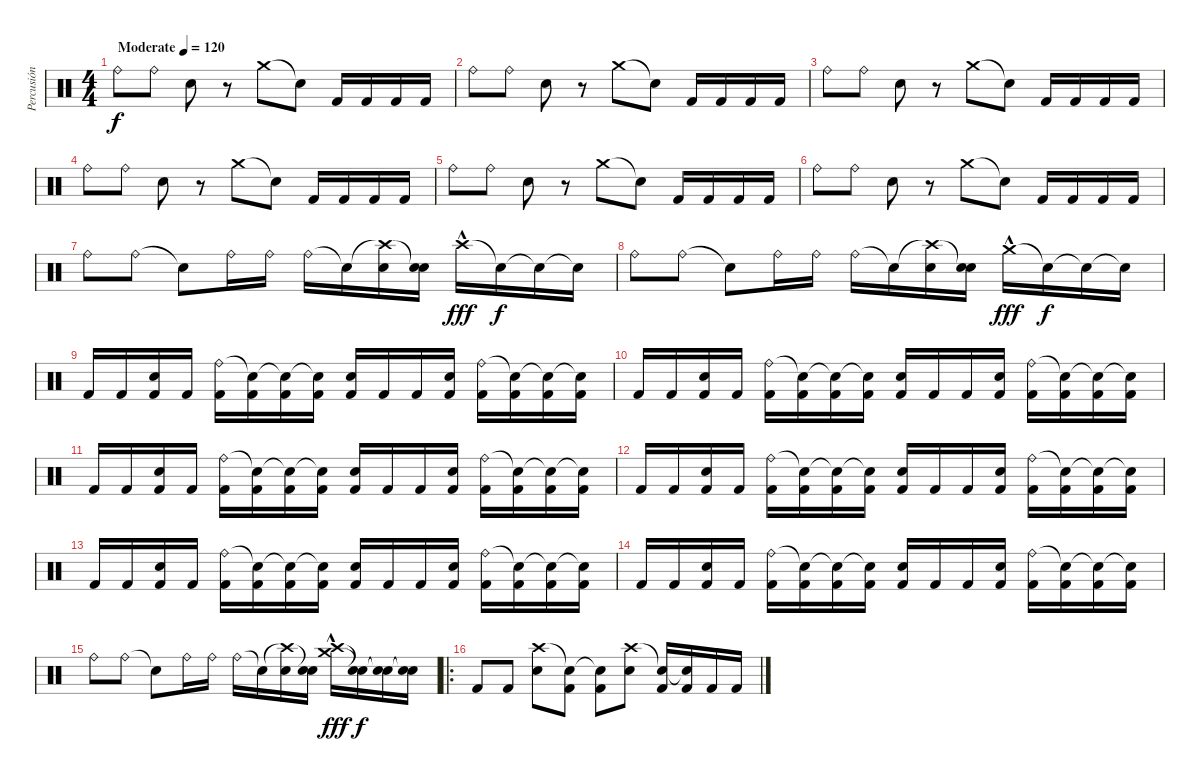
\track ("Percusión" "Percusión") {instrument percussion}
\staff {score}
\articulation defaults
\ts (4 4)
\tempo (120 "Moderate")
\clef neutral
\ks c "Ride (bell)".8{dy f} "Ride (bell)".8 "Electric Snare (hit)".8
r.8 "Crash medium (hit)".8 "Snare (hit)"{t}.8 "Kick (hit) 2".16 "Kick (hit) 2".16 "Kick (hit) 2".16 "Kick (hit) 2".16 |
"Ride (bell)".8 "Ride (bell)".8 "Electric Snare (hit)".8 r.8 "Crash medium (hit)".8 "Snare (hit)"{t}.8 "Kick (hit) 2".16 "Kick (hit) 2".16 "Kick (hit) 2".16 "Kick (hit) 2".16 |
"Ride (bell)".8 "Ride (bell)".8 "Electric Snare (hit)".8 r.8 "Crash medium (hit)".8 "Snare (hit)"{t}.8 "Kick (hit) 2".16 "Kick (hit) 2".16 "Kick (hit) 2".16 "Kick (hit) 2".16 |
"Ride (bell)".8 "Ride (bell)".8 "Electric Snare (hit)".8 r.8 "Crash medium (hit)".8 "Snare (hit)"{t}.8 "Kick (hit) 2".16 "Kick (hit) 2".16 "Kick (hit) 2".16 "Kick (hit) 2".16 |
"Ride (bell)".8 "Ride (bell)".8 "Electric Snare (hit)".8 r.8 "Crash medium (hit)".8 "Snare (hit)"{t}.8 "Kick (hit) 2".16 "Kick (hit) 2".16 "Kick (hit) 2".16 "Kick (hit) 2".16 |
"Ride (bell)".8 "Ride (bell)".8 "Electric Snare (hit)".8 r.8 "Crash medium (hit)".8 "Snare (hit)"{t}.8 "Kick (hit) 2".16 "Kick (hit) 2".16 "Kick (hit) 2".16 "Kick (hit) 2".16 |
"Ride (bell)".8 "Ride (bell)".8 "Snare (hit)"{t}.8 "Ride (bell)".16 "Ride (bell)".16 "Ride (bell)".16 "Snare (hit)"{t}.16 ("Crash high (hit)"{t} "Electric Snare (hit)").16 ("Snare (hit)"{t} "Electric Snare (hit)").16 "Crash high (hit)"{hac}.16{dy fff} "Snare (hit)"{t}.16{dy f} "Snare (hit)"{t}.16 "Snare (hit)"{t}.16 |
"Ride (bell)".8 "Ride (bell)".8 "Snare (hit)"{t}.8 "Ride (bell)".16 "Ride (bell)".16 "Ride (bell)".16 "Snare (hit)"{t}.16 ("Crash high (hit)"{t} "Electric Snare (hit)").16 ("Snare (hit)"{t} "Electric Snare (hit)").16 "Crash medium (hit)"{hac}.16{dy fff} "Snare (hit)"{t}.16{dy f} "Snare (hit)"{t}.16 "Snare (hit)"{t}.16 |
"Kick (hit) 2".16 "Kick (hit) 2".16 ("Electric Snare (hit)" "Kick (hit) 2").16 "Kick (hit) 2".16 ("Ride (bell)" "Kick (hit) 2").16 ("Snare (hit)"{t} "Kick (hit) 2").16 ("Snare (hit)"{t} "Kick (hit) 2").16 ("Snare (hit)"{t} "Kick (hit) 2").16 ("Electric Snare (hit)" "Kick (hit) 2").16 "Kick (hit) 2".16 "Kick (hit) 2".16 ("Electric Snare (hit)" "Kick (hit) 2").16 ("Ride (bell)" "Kick (hit) 2").16 ("Snare (hit)"{t} "Kick (hit) 2").16 ("Snare (hit)"{t} "Kick (hit) 2").16 ("Snare (hit)"{t} "Kick (hit) 2").16 |
"Kick (hit) 2".16 "Kick (hit) 2".16 ("Electric Snare (hit)" "Kick (hit) 2").16 "Kick (hit) 2".16 ("Ride (bell)" "Kick (hit) 2").16 ("Snare (hit)"{t} "Kick (hit) 2").16 ("Snare (hit)"{t} "Kick (hit) 2").16 ("Snare (hit)"{t} "Kick (hit) 2").16 ("Electric Snare (hit)" "Kick (hit) 2").16 "Kick (hit) 2".16 "Kick (hit) 2".16 ("Electric Snare (hit)" "Kick (hit) 2").16 ("Ride (bell)" "Kick (hit) 2").16 ("Snare (hit)"{t} "Kick (hit) 2").16 ("Snare (hit)"{t} "Kick (hit) 2").16 ("Snare (hit)"{t} "Kick (hit) 2").16 |
"Kick (hit) 2".16 "Kick (hit) 2".16 ("Electric Snare (hit)" "Kick (hit) 2").16 "Kick (hit) 2".16 ("Ride (bell)" "Kick (hit) 2").16 ("Snare (hit)"{t} "Kick (hit) 2").16 ("Snare (hit)"{t} "Kick (hit) 2").16 ("Snare (hit)"{t} "Kick (hit) 2").16 ("Electric Snare (hit)" "Kick (hit) 2").16 "Kick (hit) 2".16 "Kick (hit) 2".16 ("Electric Snare (hit)" "Kick (hit) 2").16 ("Ride (bell)" "Kick (hit) 2").16 ("Snare (hit)"{t} "Kick (hit) 2").16 ("Snare (hit)"{t} "Kick (hit) 2").16 ("Snare (hit)"{t} "Kick (hit) 2").16 |
"Kick (hit) 2".16 "Kick (hit) 2".16 ("Electric Snare (hit)" "Kick (hit) 2").16 "Kick (hit) 2".16 ("Ride (bell)" "Kick (hit) 2").16 ("Snare (hit)"{t} "Kick (hit) 2").16 ("Snare (hit)"{t} "Kick (hit) 2").16 ("Snare (hit)"{t} "Kick (hit) 2").16 ("Electric Snare (hit)" "Kick (hit) 2").16 "Kick (hit) 2".16 "Kick (hit) 2".16 ("Electric Snare (hit)" "Kick (hit) 2").16 ("Ride (bell)" "Kick (hit) 2").16 ("Snare (hit)"{t} "Kick (hit) 2").16 ("Snare (hit)"{t} "Kick (hit) 2").16 ("Snare (hit)"{t} "Kick (hit) 2").16 |
"Kick (hit) 2".16 "Kick (hit) 2".16 ("Electric Snare (hit)" "Kick (hit) 2").16 "Kick (hit) 2".16 ("Ride (bell)" "Kick (hit) 2").16 ("Snare (hit)"{t} "Kick (hit) 2").16 ("Snare (hit)"{t} "Kick (hit) 2").16 ("Snare (hit)"{t} "Kick (hit) 2").16 ("Electric Snare (hit)" "Kick (hit) 2").16 "Kick (hit) 2".16 "Kick (hit) 2".16 ("Electric Snare (hit)" "Kick (hit) 2").16 ("Ride (bell)" "Kick (hit) 2").16 ("Snare (hit)"{t} "Kick (hit) 2").16 ("Snare (hit)"{t} "Kick (hit) 2").16 ("Snare (hit)"{t} "Kick (hit) 2").16 |
"Kick (hit) 2".16 "Kick (hit) 2".16 ("Electric Snare (hit)" "Kick (hit) 2").16 "Kick (hit) 2".16 ("Ride (bell)" "Kick (hit) 2").16 ("Snare (hit)"{t} "Kick (hit) 2").16 ("Snare (hit)"{t} "Kick (hit) 2").16 ("Snare (hit)"{t} "Kick (hit) 2").16 ("Electric Snare (hit)" "Kick (hit) 2").16 "Kick (hit) 2".16 "Kick (hit) 2".16 ("Electric Snare (hit)" "Kick (hit) 2").16 ("Ride (bell)" "Kick (hit) 2").16 ("Snare (hit)"{t} "Kick (hit) 2").16 ("Snare (hit)"{t} "Kick (hit) 2").16 ("Snare (hit)"{t} "Kick (hit) 2").16 |
"Ride (bell)".8 "Ride (bell)".8 "Snare (hit)"{t}.8 "Ride (bell)".16 "Ride (bell)".16 "Ride (bell)".16 "Snare (hit)"{t}.16 ("Crash high (hit)"{t} "Electric Snare (hit)").16 ("Snare (hit)"{t} "Electric Snare (hit)").16 ("Crash medium (hit)"{hac} "Crash high (hit)"{hac}).16{dy fff} ("Snare (hit)"{t} "Snare (hit)"{t}).16{dy f} ("Snare (hit)"{t} "Snare (hit)"{t}).16 ("Snare (hit)"{t} "Snare (hit)"{t}).16 |
\ro "Kick (hit) 2".8 "Kick (hit) 2".8
("Crash high (hit)" "Electric Snare (hit)").8 ("Snare (hit)"{t} "Kick (hit) 2").8 ("Snare (hit)"{t} "Kick (hit) 2").8 ("Crash high (hit)" "Electric Snare (hit)").8 ("Snare (hit)"{t} "Kick (hit) 2").16 ("Snare (hit)"{t} "Kick (hit) 2").16 "Kick (hit) 2".16 "Kick (hit) 2".16
